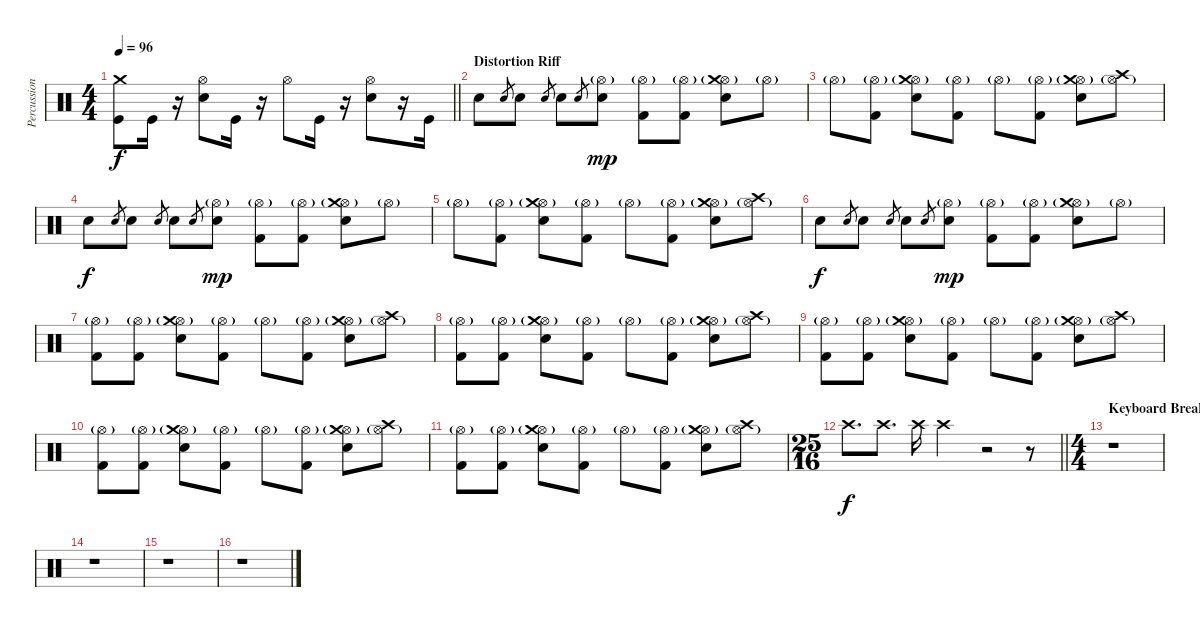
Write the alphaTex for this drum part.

\track ("Percussion" "Percussion") {instrument percussion}
\staff {score}
\articulation defaults
\ts (4 4)
\tempo 96
\clef neutral
\barLineRight lightlight
\ks c
("Crash medium (hit)" "Kick (hit)").8{dy f} "Kick (hit)".16 r.16 ("Hi-Hat (open)" "Electric Snare (hit)").8 "Kick (hit)".16 r.16 "Hi-Hat (open)".8 "Kick (hit)".16 r.16 ("Hi-Hat (open)" "Electric Snare (hit)").8 r.16 "Kick (hit)".16 |
\section ("" "Distortion Riff")
"Electric Snare (hit)".8 "Electric Snare (hit)".8{gr} "Electric Snare (hit)".8 "Electric Snare (hit)".8{gr} "Electric Snare (hit)".8 "Electric Snare (hit)".8{gr} ("Hi-Hat (open)"{g} "Electric Snare (hit)").8{dy mp} ("Hi-Hat (open)"{g} "Kick (hit) 2").8 ("Hi-Hat (open)"{g} "Kick (hit) 2").8 ("Hi-Hat (open)"{g} "Crash medium (hit)" "Electric Snare (hit)").8 "Hi-Hat (open)"{g}.8 |
"Hi-Hat (open)"{g}.8 ("Hi-Hat (open)"{g} "Kick (hit) 2").8 ("Hi-Hat (open)"{g} "Crash medium (hit)" "Electric Snare (hit)").8 ("Hi-Hat (open)"{g} "Kick (hit) 2").8 "Hi-Hat (open)"{g}.8 ("Hi-Hat (open)"{g} "Kick (hit) 2").8 ("Hi-Hat (open)"{g} "Crash medium (hit)" "Electric Snare (hit)").8 ("Hi-Hat (open)"{g} "Crash high (hit)").8 |
"Electric Snare (hit)".8{dy f} "Electric Snare (hit)".8{gr} "Electric Snare (hit)".8 "Electric Snare (hit)".8{gr} "Electric Snare (hit)".8 "Electric Snare (hit)".8{gr} ("Hi-Hat (open)"{g} "Electric Snare (hit)").8{dy mp} ("Hi-Hat (open)"{g} "Kick (hit) 2").8 ("Hi-Hat (open)"{g} "Kick (hit) 2").8 ("Hi-Hat (open)"{g} "Crash medium (hit)" "Electric Snare (hit)").8 "Hi-Hat (open)"{g}.8 |
"Hi-Hat (open)"{g}.8 ("Hi-Hat (open)"{g} "Kick (hit) 2").8 ("Hi-Hat (open)"{g} "Crash medium (hit)" "Electric Snare (hit)").8 ("Hi-Hat (open)"{g} "Kick (hit) 2").8 "Hi-Hat (open)"{g}.8 ("Hi-Hat (open)"{g} "Kick (hit) 2").8 ("Hi-Hat (open)"{g} "Crash medium (hit)" "Electric Snare (hit)").8 ("Hi-Hat (open)"{g} "Crash high (hit)").8 |
"Electric Snare (hit)".8{dy f} "Electric Snare (hit)".8{gr} "Electric Snare (hit)".8 "Electric Snare (hit)".8{gr} "Electric Snare (hit)".8 "Electric Snare (hit)".8{gr} ("Hi-Hat (open)"{g} "Electric Snare (hit)").8{dy mp} ("Hi-Hat (open)"{g} "Kick (hit) 2").8 ("Hi-Hat (open)"{g} "Kick (hit) 2").8 ("Hi-Hat (open)"{g} "Crash medium (hit)" "Electric Snare (hit)").8 "Hi-Hat (open)"{g}.8 |
("Hi-Hat (open)"{g} "Kick (hit) 2").8 ("Hi-Hat (open)"{g} "Kick (hit) 2").8 ("Hi-Hat (open)"{g} "Crash medium (hit)" "Electric Snare (hit)").8 ("Hi-Hat (open)"{g} "Kick (hit) 2").8 "Hi-Hat (open)"{g}.8 ("Hi-Hat (open)"{g} "Kick (hit) 2").8 ("Hi-Hat (open)"{g} "Crash medium (hit)" "Electric Snare (hit)").8 ("Hi-Hat (open)"{g} "Crash high (hit)").8 |
("Hi-Hat (open)"{g} "Kick (hit) 2").8 ("Hi-Hat (open)"{g} "Kick (hit) 2").8 ("Hi-Hat (open)"{g} "Crash medium (hit)" "Electric Snare (hit)").8 ("Hi-Hat (open)"{g} "Kick (hit) 2").8 "Hi-Hat (open)"{g}.8 ("Hi-Hat (open)"{g} "Kick (hit) 2").8 ("Hi-Hat (open)"{g} "Crash medium (hit)" "Electric Snare (hit)").8 ("Hi-Hat (open)"{g} "Crash high (hit)").8 |
("Hi-Hat (open)"{g} "Kick (hit) 2").8 ("Hi-Hat (open)"{g} "Kick (hit) 2").8 ("Hi-Hat (open)"{g} "Crash medium (hit)" "Electric Snare (hit)").8 ("Hi-Hat (open)"{g} "Kick (hit) 2").8 "Hi-Hat (open)"{g}.8 ("Hi-Hat (open)"{g} "Kick (hit) 2").8 ("Hi-Hat (open)"{g} "Crash medium (hit)" "Electric Snare (hit)").8 ("Hi-Hat (open)"{g} "Crash high (hit)").8 |
("Hi-Hat (open)"{g} "Kick (hit) 2").8 ("Hi-Hat (open)"{g} "Kick (hit) 2").8 ("Hi-Hat (open)"{g} "Crash medium (hit)" "Electric Snare (hit)").8 ("Hi-Hat (open)"{g} "Kick (hit) 2").8 "Hi-Hat (open)"{g}.8 ("Hi-Hat (open)"{g} "Kick (hit) 2").8 ("Hi-Hat (open)"{g} "Crash medium (hit)" "Electric Snare (hit)").8 ("Hi-Hat (open)"{g} "Crash high (hit)").8 |
("Hi-Hat (open)"{g} "Kick (hit) 2").8 ("Hi-Hat (open)"{g} "Kick (hit) 2").8 ("Hi-Hat (open)"{g} "Crash medium (hit)" "Electric Snare (hit)").8 ("Hi-Hat (open)"{g} "Kick (hit) 2").8 "Hi-Hat (open)"{g}.8 ("Hi-Hat (open)"{g} "Kick (hit) 2").8 ("Hi-Hat (open)"{g} "Crash medium (hit)" "Electric Snare (hit)").8 ("Hi-Hat (open)"{g} "Crash high (hit)").8 |
\ts (25 16)
\barLineRight lightlight "Crash high (hit)".8{d dy f} "Crash high (hit)".8{d} "Crash high (hit)".16 "Crash high (hit)".2
r.2 r.8 |
\ts (4 4)
\section ("" "Keyboard Break")
r.1 |
r.1 |
r.1 |
r.1
